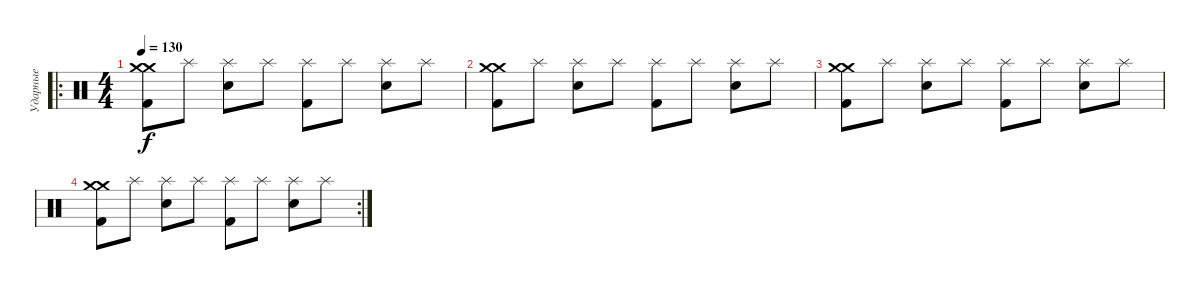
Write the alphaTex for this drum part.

\track ("Ударные" "Ударные") {instrument percussion}
\staff {score}
\articulation defaults
\ro
\ts (4 4)
\tempo 130
\clef neutral
\ks c
("Crash medium (hit)" "Crash medium (hit)" "Kick (hit) 2").8{dy f} "Splash (hit)".8 ("Splash (hit)" "Electric Snare (hit)").8 "Splash (hit)".8 ("Splash (hit)" "Kick (hit) 2").8 "Splash (hit)".8 ("Splash (hit)" "Electric Snare (hit)").8 "Splash (hit)".8 |
("Crash medium (hit)" "Crash medium (hit)" "Kick (hit) 2").8 "Splash (hit)".8 ("Splash (hit)" "Electric Snare (hit)").8 "Splash (hit)".8 ("Splash (hit)" "Kick (hit) 2").8 "Splash (hit)".8 ("Splash (hit)" "Electric Snare (hit)").8 "Splash (hit)".8 |
("Crash medium (hit)" "Crash medium (hit)" "Kick (hit) 2").8 "Splash (hit)".8 ("Splash (hit)" "Electric Snare (hit)").8 "Splash (hit)".8 ("Splash (hit)" "Kick (hit) 2").8 "Splash (hit)".8 ("Splash (hit)" "Electric Snare (hit)").8 "Splash (hit)".8 |
\rc 2
("Crash medium (hit)" "Crash medium (hit)" "Kick (hit) 2").8 "Splash (hit)".8 ("Splash (hit)" "Electric Snare (hit)").8 "Splash (hit)".8 ("Splash (hit)" "Kick (hit) 2").8 "Splash (hit)".8 ("Splash (hit)" "Electric Snare (hit)").8 "Splash (hit)".8
